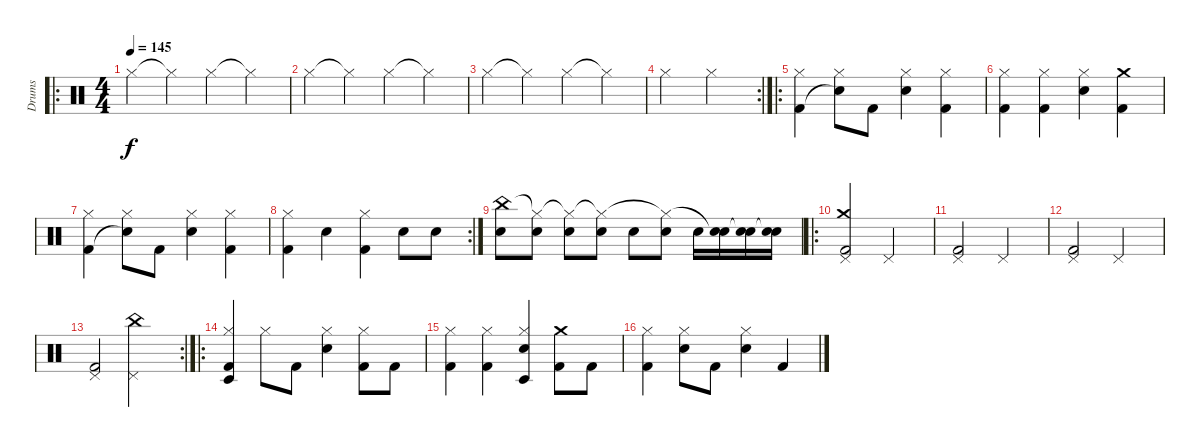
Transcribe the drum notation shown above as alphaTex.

\track ("Drums" "Drums") {instrument percussion}
\staff {score}
\articulation defaults
\ro
\ts (4 4)
\tempo 145
\clef neutral
\ks c "Hi-Hat (closed)".4{dy f} "Hi-Hat (closed)"{t}.4 "Hi-Hat (closed)".4 "Hi-Hat (closed)"{t}.4
|
"Hi-Hat (closed)".4 "Hi-Hat (closed)"{t}.4 "Hi-Hat (closed)".4 "Hi-Hat (closed)"{t}.4 |
"Hi-Hat (closed)".4 "Hi-Hat (closed)"{t}.4 "Hi-Hat (closed)".4 "Hi-Hat (closed)"{t}.4 |
\rc 2 "Hi-Hat (closed)".2 "Hi-Hat (closed)".2
|
\ro
("Hi-Hat (closed)" "Kick (hit) 2").4 ("Hi-Hat (closed)" "Snare (hit)"{t}).8 "Kick (hit) 2".8 ("Hi-Hat (closed)" "Electric Snare (hit)").4 ("Hi-Hat (closed)" "Kick (hit) 2").4 |
("Hi-Hat (closed)" "Kick (hit) 2").4 ("Hi-Hat (closed)" "Kick (hit) 2").4 ("Hi-Hat (closed)" "Electric Snare (hit)").4 ("Crash medium (hit)" "Kick (hit) 2").4 |
("Hi-Hat (closed)" "Kick (hit) 2").4 ("Hi-Hat (closed)" "Snare (hit)"{t}).8 "Kick (hit) 2".8 ("Hi-Hat (closed)" "Electric Snare (hit)").4 ("Hi-Hat (closed)" "Kick (hit) 2").4 |
\rc 2
("Hi-Hat (closed)" "Kick (hit) 2").4 "Electric Snare (hit)".4 ("Hi-Hat (closed)" "Kick (hit) 2").4 "Electric Snare (hit)".8 "Electric Snare (hit)".8 |
("Electric Snare (hit)" "China (hit)").8 ("Electric Snare (hit)" "Hi-Hat (closed)"{t}).8 ("Electric Snare (hit)" "Hi-Hat (closed)"{t}).8 ("Electric Snare (hit)" "Hi-Hat (closed)"{t}).8 "Electric Snare (hit)".8 ("Electric Snare (hit)" "Hi-Hat (closed)"{t}).8 "Electric Snare (hit)".16 ("Electric Snare (hit)" "Snare (hit)"{t}).16 ("Electric Snare (hit)" "Snare (hit)"{t}).16 ("Electric Snare (hit)" "Snare (hit)"{t}).16 |
\ro
("Pedal Hi-Hat (hit)" "Kick (hit) 2" "Crash medium (hit)").2 "Pedal Hi-Hat (hit)".2 |
("Pedal Hi-Hat (hit)" "Kick (hit) 2").2 "Pedal Hi-Hat (hit)".2 |
("Pedal Hi-Hat (hit)" "Kick (hit) 2").2 "Pedal Hi-Hat (hit)".2 |
\rc 2
("Pedal Hi-Hat (hit)" "Kick (hit) 2").2 ("Pedal Hi-Hat (hit)" "China (hit)").2 |
\ro
("Hi-Hat (closed)" "Kick (hit) 2" "Timbale low (hit)").4 "Hi-Hat (closed)".8 "Kick (hit) 2".8 ("Hi-Hat (closed)" "Electric Snare (hit)").4 ("Hi-Hat (closed)" "Kick (hit) 2").8 "Kick (hit) 2".8 |
("Hi-Hat (closed)" "Kick (hit) 2").4 ("Hi-Hat (closed)" "Kick (hit) 2").4 ("Hi-Hat (closed)" "Electric Snare (hit)" "Timbale low (hit)").4 ("Crash medium (hit)" "Kick (hit) 2").8 "Kick (hit) 2".8 |
("Hi-Hat (closed)" "Kick (hit) 2").4 ("Hi-Hat (closed)" "Electric Snare (hit)").8 "Kick (hit) 2".8 ("Hi-Hat (closed)" "Electric Snare (hit)").4 "Kick (hit) 2".4
